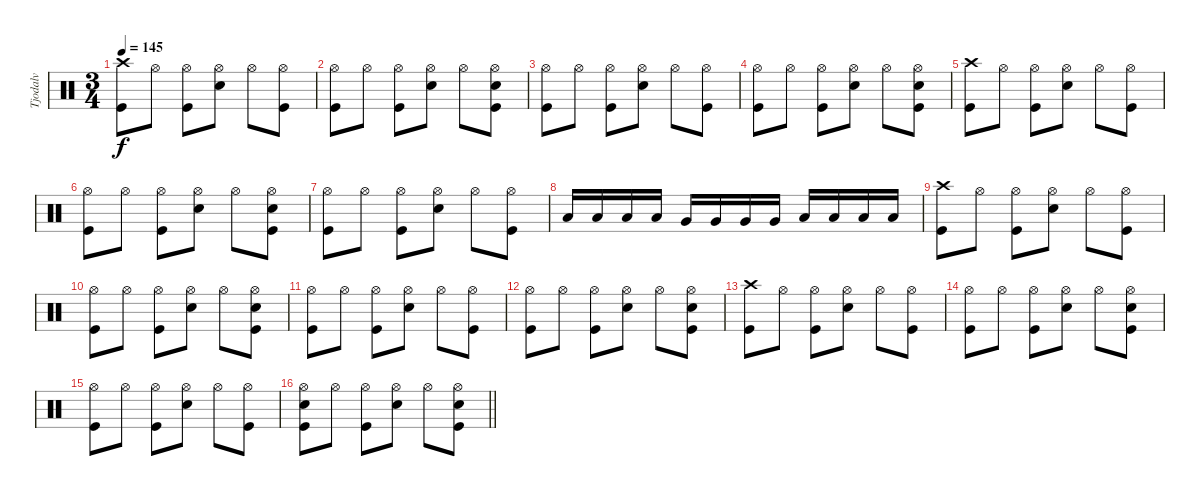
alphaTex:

\track ("Tjodalv" "Tjodalv") {instrument percussion}
\staff {score}
\articulation defaults
\ts (3 4)
\tempo 145
\clef neutral
\ks c
("Crash high (hit)" "Kick (hit)").8{dy f} "Hi-Hat (open)".8 ("Hi-Hat (open)" "Kick (hit)").8 ("Hi-Hat (open)" "Snare (hit) 2").8 "Hi-Hat (open)".8 ("Hi-Hat (open)" "Kick (hit)").8 |
("Hi-Hat (open)" "Kick (hit)").8 "Hi-Hat (open)".8 ("Hi-Hat (open)" "Kick (hit)").8 ("Hi-Hat (open)" "Snare (hit) 2").8 "Hi-Hat (open)".8 ("Hi-Hat (open)" "Snare (hit) 2" "Kick (hit)").8 |
("Hi-Hat (open)" "Kick (hit)").8 "Hi-Hat (open)".8 ("Hi-Hat (open)" "Kick (hit)").8 ("Hi-Hat (open)" "Snare (hit) 2").8 "Hi-Hat (open)".8 ("Hi-Hat (open)" "Kick (hit)").8 |
("Hi-Hat (open)" "Kick (hit)").8 "Hi-Hat (open)".8 ("Hi-Hat (open)" "Kick (hit)").8 ("Hi-Hat (open)" "Snare (hit) 2").8 "Hi-Hat (open)".8 ("Hi-Hat (open)" "Snare (hit) 2" "Kick (hit)").8 |
("Crash high (hit)" "Kick (hit)").8 "Hi-Hat (open)".8 ("Hi-Hat (open)" "Kick (hit)").8 ("Hi-Hat (open)" "Snare (hit) 2").8 "Hi-Hat (open)".8 ("Hi-Hat (open)" "Kick (hit)").8 |
("Hi-Hat (open)" "Kick (hit)").8 "Hi-Hat (open)".8 ("Hi-Hat (open)" "Kick (hit)").8 ("Hi-Hat (open)" "Snare (hit) 2").8 "Hi-Hat (open)".8 ("Hi-Hat (open)" "Snare (hit) 2" "Kick (hit)").8 |
("Hi-Hat (open)" "Kick (hit)").8 "Hi-Hat (open)".8 ("Hi-Hat (open)" "Kick (hit)").8 ("Hi-Hat (open)" "Snare (hit) 2").8 "Hi-Hat (open)".8 ("Hi-Hat (open)" "Kick (hit)").8 |
"Low Tom (hit)".16 "Low Tom (hit)".16 "Low Tom (hit)".16 "Low Tom (hit)".16 "Very Low Tom (hit)".16 "Very Low Tom (hit)".16 "Very Low Tom (hit)".16 "Very Low Tom (hit)".16 "Low Floor Tom (hit)".16 "Low Floor Tom (hit)".16 "Low Floor Tom (hit)".16 "Low Floor Tom (hit)".16 |
("Crash high (hit)" "Kick (hit)").8 "Hi-Hat (open)".8 ("Hi-Hat (open)" "Kick (hit)").8 ("Hi-Hat (open)" "Snare (hit) 2").8 "Hi-Hat (open)".8 ("Hi-Hat (open)" "Kick (hit)").8 |
("Hi-Hat (open)" "Kick (hit)").8 "Hi-Hat (open)".8 ("Hi-Hat (open)" "Kick (hit)").8 ("Hi-Hat (open)" "Snare (hit) 2").8 "Hi-Hat (open)".8 ("Hi-Hat (open)" "Snare (hit) 2" "Kick (hit)").8 |
("Hi-Hat (open)" "Kick (hit)").8 "Hi-Hat (open)".8 ("Hi-Hat (open)" "Kick (hit)").8 ("Hi-Hat (open)" "Snare (hit) 2").8 "Hi-Hat (open)".8 ("Hi-Hat (open)" "Kick (hit)").8 |
("Hi-Hat (open)" "Kick (hit)").8 "Hi-Hat (open)".8 ("Hi-Hat (open)" "Kick (hit)").8 ("Hi-Hat (open)" "Snare (hit) 2").8 "Hi-Hat (open)".8 ("Hi-Hat (open)" "Snare (hit) 2" "Kick (hit)").8 |
("Crash high (hit)" "Kick (hit)").8 "Hi-Hat (open)".8 ("Hi-Hat (open)" "Kick (hit)").8 ("Hi-Hat (open)" "Snare (hit) 2").8 "Hi-Hat (open)".8 ("Hi-Hat (open)" "Kick (hit)").8 |
("Hi-Hat (open)" "Kick (hit)").8 "Hi-Hat (open)".8 ("Hi-Hat (open)" "Kick (hit)").8 ("Hi-Hat (open)" "Snare (hit) 2").8 "Hi-Hat (open)".8 ("Hi-Hat (open)" "Snare (hit) 2" "Kick (hit)").8 |
("Hi-Hat (open)" "Kick (hit)").8 "Hi-Hat (open)".8 ("Hi-Hat (open)" "Kick (hit)").8 ("Hi-Hat (open)" "Snare (hit) 2").8 "Hi-Hat (open)".8 ("Hi-Hat (open)" "Kick (hit)").8 |
\barLineRight lightlight
("Hi-Hat (open)" "Snare (hit) 2" "Kick (hit)").8 "Hi-Hat (open)".8 ("Hi-Hat (open)" "Kick (hit)").8 ("Hi-Hat (open)" "Snare (hit) 2").8 "Hi-Hat (open)".8 ("Hi-Hat (open)" "Snare (hit) 2" "Kick (hit)").8
